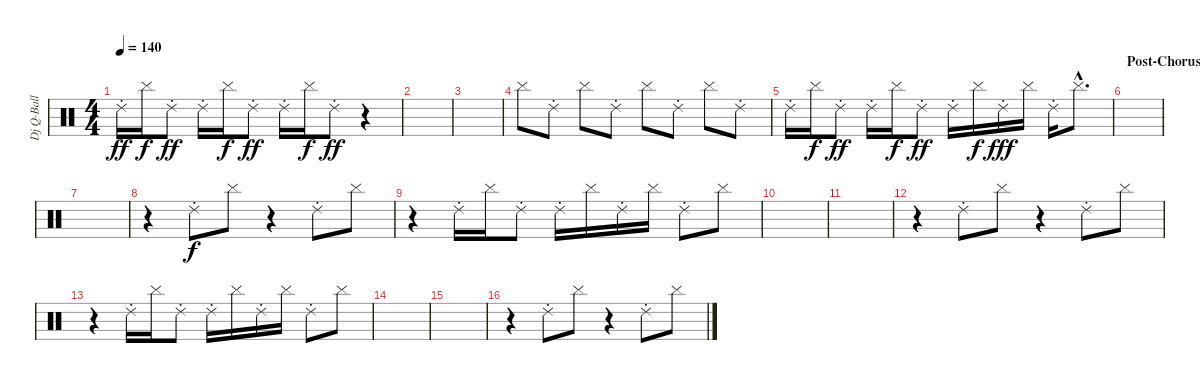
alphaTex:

\track ("Dj Q-Ball" "Dj Q-Ball") {instrument percussion}
\staff {score}
\articulation defaults
\ts (4 4)
\tempo 140
\clef neutral
\ks c "Ride (choke) 2".16{dy ff} "Cymbal (hit)".16{dy f} "Ride (choke) 2".8{dy ff} "Ride (choke) 2".16 "Cymbal (hit)".16{dy f} "Ride (choke) 2".8{dy ff} "Ride (choke) 2".16 "Cymbal (hit)".16{dy f} "Ride (choke) 2".8{dy ff}
r.4 |
|
|
"Cymbal (hit)".8 "Ride (choke) 2".8 "Cymbal (hit)".8 "Ride (choke) 2".8 "Cymbal (hit)".8 "Ride (choke) 2".8 "Cymbal (hit)".8 "Ride (choke) 2".8 |
"Ride (choke) 2".16 "Cymbal (hit)".16{dy f} "Ride (choke) 2".8{dy ff} "Ride (choke) 2".16 "Cymbal (hit)".16{dy f} "Ride (choke) 2".8{dy ff} "Ride (choke) 2".16 "Cymbal (hit)".16{dy f} "Ride (choke) 2".16{dy fff} "Cymbal (hit)".16 "Ride (choke) 2".16 "Cymbal (hit)"{hac}.8{d} |
\section ("" "Post-Chorus")
|
|
r.4 "Ride (choke) 2".8{dy f} "Cymbal (hit)".8 r.4 "Ride (choke) 2".8 "Cymbal (hit)".8 |
r.4 "Ride (choke) 2".16 "Cymbal (hit)".16 "Ride (choke) 2".8 "Ride (choke) 2".16 "Cymbal (hit)".16 "Ride (choke) 2".16 "Cymbal (hit)".16 "Ride (choke) 2".8 "Cymbal (hit)".8 |
|
|
r.4 "Ride (choke) 2".8 "Cymbal (hit)".8 r.4 "Ride (choke) 2".8 "Cymbal (hit)".8 |
r.4 "Ride (choke) 2".16 "Cymbal (hit)".16 "Ride (choke) 2".8 "Ride (choke) 2".16 "Cymbal (hit)".16 "Ride (choke) 2".16 "Cymbal (hit)".16 "Ride (choke) 2".8 "Cymbal (hit)".8 |
|
|
r.4 "Ride (choke) 2".8 "Cymbal (hit)".8 r.4 "Ride (choke) 2".8 "Cymbal (hit)".8
